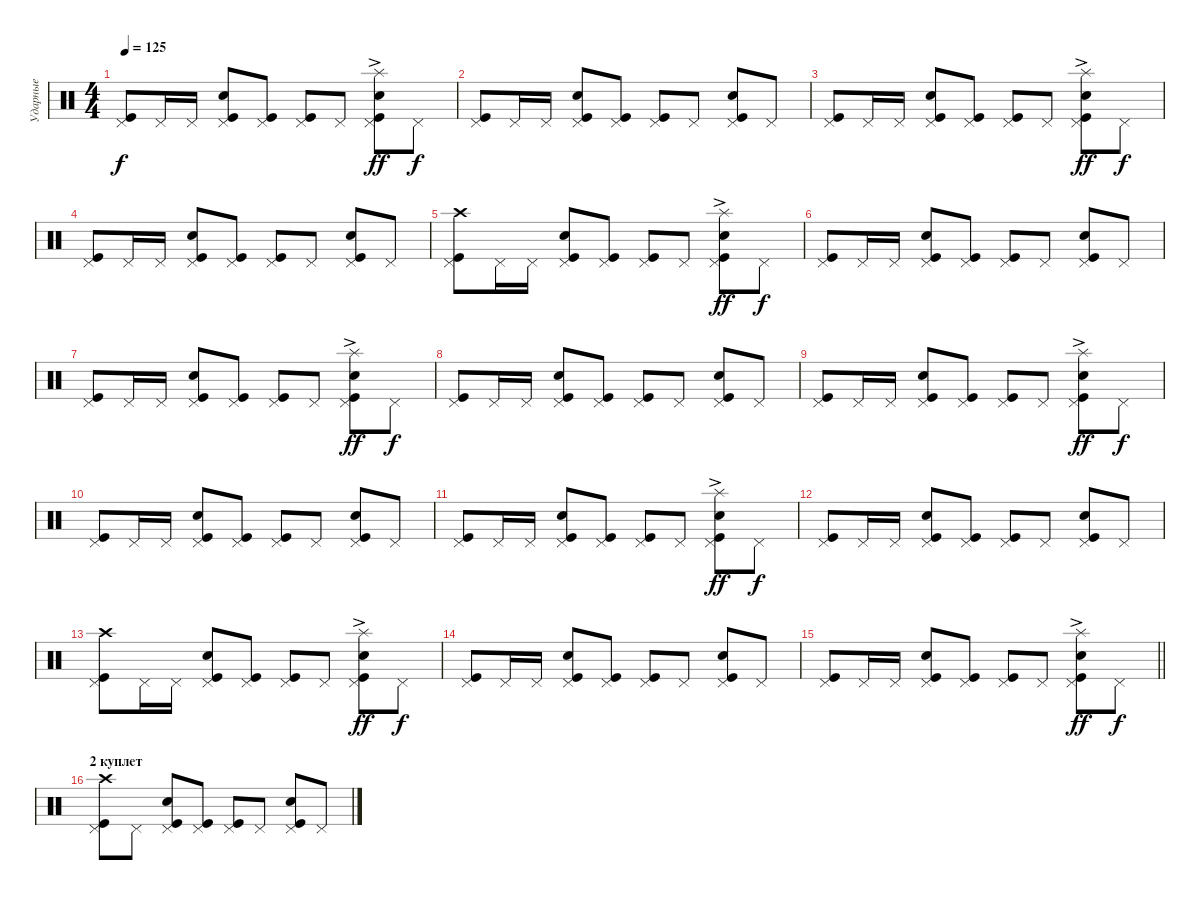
\track ("Ударные" "Ударные") {instrument percussion}
\staff {score}
\articulation defaults
\ts (4 4)
\tempo 125
\clef neutral
\ks c
("Pedal Hi-Hat (hit)" "Kick (hit)").8{dy f} "Pedal Hi-Hat (hit)".16 "Pedal Hi-Hat (hit)".16 ("Pedal Hi-Hat (hit)" "Kick (hit)" "Snare (hit) 2").8 ("Pedal Hi-Hat (hit)" "Kick (hit)").8 ("Pedal Hi-Hat (hit)" "Kick (hit)").8 "Pedal Hi-Hat (hit)".8 ("Pedal Hi-Hat (hit)" "Kick (hit)" "Snare (hit) 2" "Splash (hit)"{ac}).8{dy ff} "Pedal Hi-Hat (hit)".8{dy f} |
("Pedal Hi-Hat (hit)" "Kick (hit)").8 "Pedal Hi-Hat (hit)".16 "Pedal Hi-Hat (hit)".16 ("Pedal Hi-Hat (hit)" "Kick (hit)" "Snare (hit) 2").8 ("Pedal Hi-Hat (hit)" "Kick (hit)").8 ("Pedal Hi-Hat (hit)" "Kick (hit)").8 "Pedal Hi-Hat (hit)".8 ("Pedal Hi-Hat (hit)" "Kick (hit)" "Snare (hit) 2").8 "Pedal Hi-Hat (hit)".8 |
("Pedal Hi-Hat (hit)" "Kick (hit)").8 "Pedal Hi-Hat (hit)".16 "Pedal Hi-Hat (hit)".16 ("Pedal Hi-Hat (hit)" "Kick (hit)" "Snare (hit) 2").8 ("Pedal Hi-Hat (hit)" "Kick (hit)").8 ("Pedal Hi-Hat (hit)" "Kick (hit)").8 "Pedal Hi-Hat (hit)".8 ("Pedal Hi-Hat (hit)" "Kick (hit)" "Snare (hit) 2" "Splash (hit)"{ac}).8{dy ff} "Pedal Hi-Hat (hit)".8{dy f} |
("Pedal Hi-Hat (hit)" "Kick (hit)").8 "Pedal Hi-Hat (hit)".16 "Pedal Hi-Hat (hit)".16 ("Pedal Hi-Hat (hit)" "Kick (hit)" "Snare (hit) 2").8 ("Pedal Hi-Hat (hit)" "Kick (hit)").8 ("Pedal Hi-Hat (hit)" "Kick (hit)").8 "Pedal Hi-Hat (hit)".8 ("Pedal Hi-Hat (hit)" "Kick (hit)" "Snare (hit) 2").8 "Pedal Hi-Hat (hit)".8 |
("Pedal Hi-Hat (hit)" "Kick (hit)" "Crash high (hit)").8 "Pedal Hi-Hat (hit)".16 "Pedal Hi-Hat (hit)".16 ("Pedal Hi-Hat (hit)" "Kick (hit)" "Snare (hit) 2").8 ("Pedal Hi-Hat (hit)" "Kick (hit)").8 ("Pedal Hi-Hat (hit)" "Kick (hit)").8 "Pedal Hi-Hat (hit)".8 ("Pedal Hi-Hat (hit)" "Kick (hit)" "Snare (hit) 2" "Splash (hit)"{ac}).8{dy ff} "Pedal Hi-Hat (hit)".8{dy f} |
("Pedal Hi-Hat (hit)" "Kick (hit)").8 "Pedal Hi-Hat (hit)".16 "Pedal Hi-Hat (hit)".16 ("Pedal Hi-Hat (hit)" "Kick (hit)" "Snare (hit) 2").8 ("Pedal Hi-Hat (hit)" "Kick (hit)").8 ("Pedal Hi-Hat (hit)" "Kick (hit)").8 "Pedal Hi-Hat (hit)".8 ("Pedal Hi-Hat (hit)" "Kick (hit)" "Snare (hit) 2").8 "Pedal Hi-Hat (hit)".8 |
("Pedal Hi-Hat (hit)" "Kick (hit)").8 "Pedal Hi-Hat (hit)".16 "Pedal Hi-Hat (hit)".16 ("Pedal Hi-Hat (hit)" "Kick (hit)" "Snare (hit) 2").8 ("Pedal Hi-Hat (hit)" "Kick (hit)").8 ("Pedal Hi-Hat (hit)" "Kick (hit)").8 "Pedal Hi-Hat (hit)".8 ("Pedal Hi-Hat (hit)" "Kick (hit)" "Snare (hit) 2" "Splash (hit)"{ac}).8{dy ff} "Pedal Hi-Hat (hit)".8{dy f} |
("Pedal Hi-Hat (hit)" "Kick (hit)").8 "Pedal Hi-Hat (hit)".16 "Pedal Hi-Hat (hit)".16 ("Pedal Hi-Hat (hit)" "Kick (hit)" "Snare (hit) 2").8 ("Pedal Hi-Hat (hit)" "Kick (hit)").8 ("Pedal Hi-Hat (hit)" "Kick (hit)").8 "Pedal Hi-Hat (hit)".8 ("Pedal Hi-Hat (hit)" "Kick (hit)" "Snare (hit) 2").8 "Pedal Hi-Hat (hit)".8 |
("Pedal Hi-Hat (hit)" "Kick (hit)").8 "Pedal Hi-Hat (hit)".16 "Pedal Hi-Hat (hit)".16 ("Pedal Hi-Hat (hit)" "Kick (hit)" "Snare (hit) 2").8 ("Pedal Hi-Hat (hit)" "Kick (hit)").8 ("Pedal Hi-Hat (hit)" "Kick (hit)").8 "Pedal Hi-Hat (hit)".8 ("Pedal Hi-Hat (hit)" "Kick (hit)" "Snare (hit) 2" "Splash (hit)"{ac}).8{dy ff} "Pedal Hi-Hat (hit)".8{dy f} |
("Pedal Hi-Hat (hit)" "Kick (hit)").8 "Pedal Hi-Hat (hit)".16 "Pedal Hi-Hat (hit)".16 ("Pedal Hi-Hat (hit)" "Kick (hit)" "Snare (hit) 2").8 ("Pedal Hi-Hat (hit)" "Kick (hit)").8 ("Pedal Hi-Hat (hit)" "Kick (hit)").8 "Pedal Hi-Hat (hit)".8 ("Pedal Hi-Hat (hit)" "Kick (hit)" "Snare (hit) 2").8 "Pedal Hi-Hat (hit)".8 |
("Pedal Hi-Hat (hit)" "Kick (hit)").8 "Pedal Hi-Hat (hit)".16 "Pedal Hi-Hat (hit)".16 ("Pedal Hi-Hat (hit)" "Kick (hit)" "Snare (hit) 2").8 ("Pedal Hi-Hat (hit)" "Kick (hit)").8 ("Pedal Hi-Hat (hit)" "Kick (hit)").8 "Pedal Hi-Hat (hit)".8 ("Pedal Hi-Hat (hit)" "Kick (hit)" "Snare (hit) 2" "Splash (hit)"{ac}).8{dy ff} "Pedal Hi-Hat (hit)".8{dy f} |
("Pedal Hi-Hat (hit)" "Kick (hit)").8 "Pedal Hi-Hat (hit)".16 "Pedal Hi-Hat (hit)".16 ("Pedal Hi-Hat (hit)" "Kick (hit)" "Snare (hit) 2").8 ("Pedal Hi-Hat (hit)" "Kick (hit)").8 ("Pedal Hi-Hat (hit)" "Kick (hit)").8 "Pedal Hi-Hat (hit)".8 ("Pedal Hi-Hat (hit)" "Kick (hit)" "Snare (hit) 2").8 "Pedal Hi-Hat (hit)".8 |
("Pedal Hi-Hat (hit)" "Kick (hit)" "Crash high (hit)").8 "Pedal Hi-Hat (hit)".16 "Pedal Hi-Hat (hit)".16 ("Pedal Hi-Hat (hit)" "Kick (hit)" "Snare (hit) 2").8 ("Pedal Hi-Hat (hit)" "Kick (hit)").8 ("Pedal Hi-Hat (hit)" "Kick (hit)").8 "Pedal Hi-Hat (hit)".8 ("Pedal Hi-Hat (hit)" "Kick (hit)" "Snare (hit) 2" "Splash (hit)"{ac}).8{dy ff} "Pedal Hi-Hat (hit)".8{dy f} |
("Pedal Hi-Hat (hit)" "Kick (hit)").8 "Pedal Hi-Hat (hit)".16 "Pedal Hi-Hat (hit)".16 ("Pedal Hi-Hat (hit)" "Kick (hit)" "Snare (hit) 2").8 ("Pedal Hi-Hat (hit)" "Kick (hit)").8 ("Pedal Hi-Hat (hit)" "Kick (hit)").8 "Pedal Hi-Hat (hit)".8 ("Pedal Hi-Hat (hit)" "Kick (hit)" "Snare (hit) 2").8 "Pedal Hi-Hat (hit)".8 |
\barLineRight lightlight
("Pedal Hi-Hat (hit)" "Kick (hit)").8 "Pedal Hi-Hat (hit)".16 "Pedal Hi-Hat (hit)".16 ("Pedal Hi-Hat (hit)" "Kick (hit)" "Snare (hit) 2").8 ("Pedal Hi-Hat (hit)" "Kick (hit)").8 ("Pedal Hi-Hat (hit)" "Kick (hit)").8 "Pedal Hi-Hat (hit)".8 ("Pedal Hi-Hat (hit)" "Kick (hit)" "Snare (hit) 2" "Splash (hit)"{ac}).8{dy ff} "Pedal Hi-Hat (hit)".8{dy f} |
\section ("" "2 куплет")
("Pedal Hi-Hat (hit)" "Kick (hit)" "Crash high (hit)").8 "Pedal Hi-Hat (hit)".8 ("Pedal Hi-Hat (hit)" "Kick (hit)" "Snare (hit) 2").8 ("Pedal Hi-Hat (hit)" "Kick (hit)").8 ("Pedal Hi-Hat (hit)" "Kick (hit)").8 "Pedal Hi-Hat (hit)".8 ("Pedal Hi-Hat (hit)" "Kick (hit)" "Snare (hit) 2").8 "Pedal Hi-Hat (hit)".8
